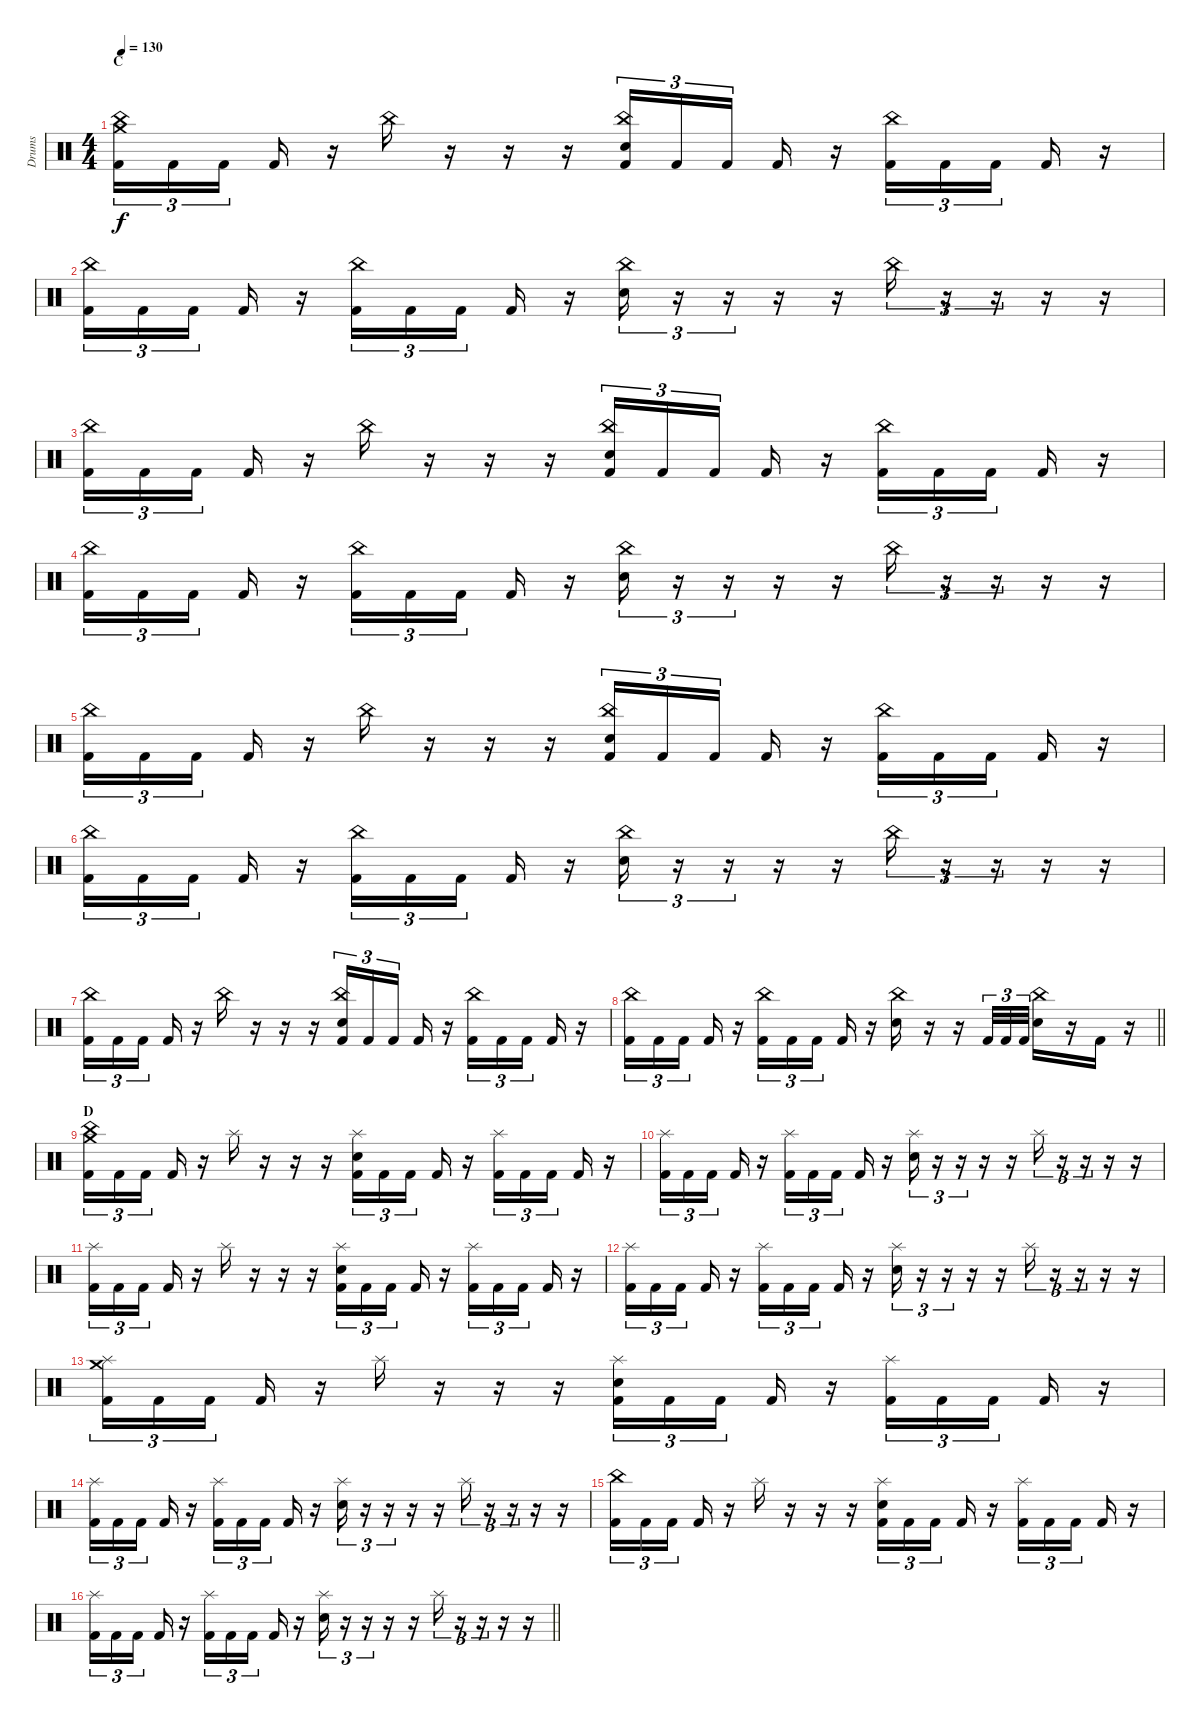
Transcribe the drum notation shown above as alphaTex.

\track ("Drums" "Drums") {instrument percussion}
\staff {score}
\articulation defaults
\ts (4 4)
\section ("" "C")
\tempo 130
\clef neutral
\ks c
("Kick (hit) 2" "China (hit)" "Crash medium (hit)").16{tu (3 2) dy f} "Kick (hit) 2".16{tu (3 2)} "Kick (hit) 2".16{tu (3 2) beam splitsecondary} "Kick (hit) 2".16 r.16 "China (hit)".16 r.16 r.16 r.16 ("Kick (hit) 2" "Snare (hit) 2" "China (hit)").16{tu (3 2)} "Kick (hit) 2".16{tu (3 2)} "Kick (hit) 2".16{tu (3 2) beam splitsecondary} "Kick (hit) 2".16 r.16 ("Kick (hit) 2" "China (hit)").16{tu (3 2)} "Kick (hit) 2".16{tu (3 2)} "Kick (hit) 2".16{tu (3 2) beam splitsecondary} "Kick (hit) 2".16 r.16 |
("Kick (hit) 2" "China (hit)").16{tu (3 2)} "Kick (hit) 2".16{tu (3 2)} "Kick (hit) 2".16{tu (3 2) beam splitsecondary} "Kick (hit) 2".16 r.16 ("Kick (hit) 2" "China (hit)").16{tu (3 2)} "Kick (hit) 2".16{tu (3 2)} "Kick (hit) 2".16{tu (3 2) beam splitsecondary} "Kick (hit) 2".16 r.16 ("Snare (hit) 2" "China (hit)").16{tu (3 2)} r.16{tu (3 2)} r.16{tu (3 2)} r.16 r.16 "China (hit)".16{tu (3 2)} r.16{tu (3 2)} r.16{tu (3 2)} r.16 r.16 |
("Kick (hit) 2" "China (hit)").16{tu (3 2)} "Kick (hit) 2".16{tu (3 2)} "Kick (hit) 2".16{tu (3 2) beam splitsecondary} "Kick (hit) 2".16 r.16 "China (hit)".16 r.16 r.16 r.16 ("Kick (hit) 2" "Snare (hit) 2" "China (hit)").16{tu (3 2)} "Kick (hit) 2".16{tu (3 2)} "Kick (hit) 2".16{tu (3 2) beam splitsecondary} "Kick (hit) 2".16 r.16 ("Kick (hit) 2" "China (hit)").16{tu (3 2)} "Kick (hit) 2".16{tu (3 2)} "Kick (hit) 2".16{tu (3 2) beam splitsecondary} "Kick (hit) 2".16 r.16 |
("Kick (hit) 2" "China (hit)").16{tu (3 2)} "Kick (hit) 2".16{tu (3 2)} "Kick (hit) 2".16{tu (3 2) beam splitsecondary} "Kick (hit) 2".16 r.16 ("Kick (hit) 2" "China (hit)").16{tu (3 2)} "Kick (hit) 2".16{tu (3 2)} "Kick (hit) 2".16{tu (3 2) beam splitsecondary} "Kick (hit) 2".16 r.16 ("Snare (hit) 2" "China (hit)").16{tu (3 2)} r.16{tu (3 2)} r.16{tu (3 2)} r.16 r.16 "China (hit)".16{tu (3 2)} r.16{tu (3 2)} r.16{tu (3 2)} r.16 r.16 |
("Kick (hit) 2" "China (hit)").16{tu (3 2)} "Kick (hit) 2".16{tu (3 2)} "Kick (hit) 2".16{tu (3 2) beam splitsecondary} "Kick (hit) 2".16 r.16 "China (hit)".16 r.16 r.16 r.16 ("Kick (hit) 2" "Snare (hit) 2" "China (hit)").16{tu (3 2)} "Kick (hit) 2".16{tu (3 2)} "Kick (hit) 2".16{tu (3 2) beam splitsecondary} "Kick (hit) 2".16 r.16 ("Kick (hit) 2" "China (hit)").16{tu (3 2)} "Kick (hit) 2".16{tu (3 2)} "Kick (hit) 2".16{tu (3 2) beam splitsecondary} "Kick (hit) 2".16 r.16 |
("Kick (hit) 2" "China (hit)").16{tu (3 2)} "Kick (hit) 2".16{tu (3 2)} "Kick (hit) 2".16{tu (3 2) beam splitsecondary} "Kick (hit) 2".16 r.16 ("Kick (hit) 2" "China (hit)").16{tu (3 2)} "Kick (hit) 2".16{tu (3 2)} "Kick (hit) 2".16{tu (3 2) beam splitsecondary} "Kick (hit) 2".16 r.16 ("Snare (hit) 2" "China (hit)").16{tu (3 2)} r.16{tu (3 2)} r.16{tu (3 2)} r.16 r.16 "China (hit)".16{tu (3 2)} r.16{tu (3 2)} r.16{tu (3 2)} r.16 r.16 |
("Kick (hit) 2" "China (hit)").16{tu (3 2)} "Kick (hit) 2".16{tu (3 2)} "Kick (hit) 2".16{tu (3 2) beam splitsecondary} "Kick (hit) 2".16 r.16 "China (hit)".16 r.16 r.16 r.16 ("Kick (hit) 2" "Snare (hit) 2" "China (hit)").16{tu (3 2)} "Kick (hit) 2".16{tu (3 2)} "Kick (hit) 2".16{tu (3 2) beam splitsecondary} "Kick (hit) 2".16 r.16 ("Kick (hit) 2" "China (hit)").16{tu (3 2)} "Kick (hit) 2".16{tu (3 2)} "Kick (hit) 2".16{tu (3 2) beam splitsecondary} "Kick (hit) 2".16 r.16 |
\barLineRight lightlight
("Kick (hit) 2" "China (hit)").16{tu (3 2)} "Kick (hit) 2".16{tu (3 2)} "Kick (hit) 2".16{tu (3 2) beam splitsecondary} "Kick (hit) 2".16 r.16 ("Kick (hit) 2" "China (hit)").16{tu (3 2)} "Kick (hit) 2".16{tu (3 2)} "Kick (hit) 2".16{tu (3 2) beam splitsecondary} "Kick (hit) 2".16 r.16 ("Snare (hit) 2" "China (hit)").16 r.16 r.16 "Kick (hit) 2".32{tu (3 2)} "Kick (hit) 2".32{tu (3 2)} "Kick (hit) 2".32{tu (3 2)} ("Snare (hit) 2" "China (hit)").16 r.16 "Kick (hit) 2".16 r.16 |
\section ("" "D")
("Kick (hit) 2" "China (hit)" "Crash medium (hit)").16{tu (3 2)} "Kick (hit) 2".16{tu (3 2)} "Kick (hit) 2".16{tu (3 2) beam splitsecondary} "Kick (hit) 2".16 r.16 "Splash (hit)".16 r.16 r.16 r.16 ("Kick (hit) 2" "Snare (hit) 2" "Splash (hit)").16{tu (3 2)} "Kick (hit) 2".16{tu (3 2)} "Kick (hit) 2".16{tu (3 2) beam splitsecondary} "Kick (hit) 2".16 r.16 ("Kick (hit) 2" "Splash (hit)").16{tu (3 2)} "Kick (hit) 2".16{tu (3 2)} "Kick (hit) 2".16{tu (3 2) beam splitsecondary} "Kick (hit) 2".16 r.16 |
("Kick (hit) 2" "Splash (hit)").16{tu (3 2)} "Kick (hit) 2".16{tu (3 2)} "Kick (hit) 2".16{tu (3 2) beam splitsecondary} "Kick (hit) 2".16 r.16 ("Kick (hit) 2" "Splash (hit)").16{tu (3 2)} "Kick (hit) 2".16{tu (3 2)} "Kick (hit) 2".16{tu (3 2) beam splitsecondary} "Kick (hit) 2".16 r.16 ("Snare (hit) 2" "Splash (hit)").16{tu (3 2)} r.16{tu (3 2)} r.16{tu (3 2)} r.16 r.16 "Splash (hit)".16{tu (3 2)} r.16{tu (3 2)} r.16{tu (3 2)} r.16 r.16 |
("Kick (hit) 2" "Splash (hit)").16{tu (3 2)} "Kick (hit) 2".16{tu (3 2)} "Kick (hit) 2".16{tu (3 2) beam splitsecondary} "Kick (hit) 2".16 r.16 "Splash (hit)".16 r.16 r.16 r.16 ("Kick (hit) 2" "Snare (hit) 2" "Splash (hit)").16{tu (3 2)} "Kick (hit) 2".16{tu (3 2)} "Kick (hit) 2".16{tu (3 2) beam splitsecondary} "Kick (hit) 2".16 r.16 ("Kick (hit) 2" "Splash (hit)").16{tu (3 2)} "Kick (hit) 2".16{tu (3 2)} "Kick (hit) 2".16{tu (3 2) beam splitsecondary} "Kick (hit) 2".16 r.16 |
("Kick (hit) 2" "Splash (hit)").16{tu (3 2)} "Kick (hit) 2".16{tu (3 2)} "Kick (hit) 2".16{tu (3 2) beam splitsecondary} "Kick (hit) 2".16 r.16 ("Kick (hit) 2" "Splash (hit)").16{tu (3 2)} "Kick (hit) 2".16{tu (3 2)} "Kick (hit) 2".16{tu (3 2) beam splitsecondary} "Kick (hit) 2".16 r.16 ("Snare (hit) 2" "Splash (hit)").16{tu (3 2)} r.16{tu (3 2)} r.16{tu (3 2)} r.16 r.16 "Splash (hit)".16{tu (3 2)} r.16{tu (3 2)} r.16{tu (3 2)} r.16 r.16 |
("Kick (hit) 2" "Splash (hit)" "Crash medium (hit)").16{tu (3 2)} "Kick (hit) 2".16{tu (3 2)} "Kick (hit) 2".16{tu (3 2) beam splitsecondary} "Kick (hit) 2".16 r.16 "Splash (hit)".16 r.16 r.16 r.16 ("Kick (hit) 2" "Snare (hit) 2" "Splash (hit)").16{tu (3 2)} "Kick (hit) 2".16{tu (3 2)} "Kick (hit) 2".16{tu (3 2) beam splitsecondary} "Kick (hit) 2".16 r.16 ("Kick (hit) 2" "Splash (hit)").16{tu (3 2)} "Kick (hit) 2".16{tu (3 2)} "Kick (hit) 2".16{tu (3 2) beam splitsecondary} "Kick (hit) 2".16 r.16 |
("Kick (hit) 2" "Splash (hit)").16{tu (3 2)} "Kick (hit) 2".16{tu (3 2)} "Kick (hit) 2".16{tu (3 2) beam splitsecondary} "Kick (hit) 2".16 r.16 ("Kick (hit) 2" "Splash (hit)").16{tu (3 2)} "Kick (hit) 2".16{tu (3 2)} "Kick (hit) 2".16{tu (3 2) beam splitsecondary} "Kick (hit) 2".16 r.16 ("Snare (hit) 2" "Splash (hit)").16{tu (3 2)} r.16{tu (3 2)} r.16{tu (3 2)} r.16 r.16 "Splash (hit)".16{tu (3 2)} r.16{tu (3 2)} r.16{tu (3 2)} r.16 r.16 |
("Kick (hit) 2" "China (hit)").16{tu (3 2)} "Kick (hit) 2".16{tu (3 2)} "Kick (hit) 2".16{tu (3 2) beam splitsecondary} "Kick (hit) 2".16 r.16 "Splash (hit)".16 r.16 r.16 r.16 ("Kick (hit) 2" "Snare (hit) 2" "Splash (hit)").16{tu (3 2)} "Kick (hit) 2".16{tu (3 2)} "Kick (hit) 2".16{tu (3 2) beam splitsecondary} "Kick (hit) 2".16 r.16 ("Kick (hit) 2" "Splash (hit)").16{tu (3 2)} "Kick (hit) 2".16{tu (3 2)} "Kick (hit) 2".16{tu (3 2) beam splitsecondary} "Kick (hit) 2".16 r.16 |
\barLineRight lightlight
("Kick (hit) 2" "Splash (hit)").16{tu (3 2)} "Kick (hit) 2".16{tu (3 2)} "Kick (hit) 2".16{tu (3 2) beam splitsecondary} "Kick (hit) 2".16 r.16 ("Kick (hit) 2" "Splash (hit)").16{tu (3 2)} "Kick (hit) 2".16{tu (3 2)} "Kick (hit) 2".16{tu (3 2) beam splitsecondary} "Kick (hit) 2".16 r.16 ("Snare (hit) 2" "Splash (hit)").16{tu (3 2)} r.16{tu (3 2)} r.16{tu (3 2)} r.16 r.16 "Splash (hit)".16{tu (3 2)} r.16{tu (3 2)} r.16{tu (3 2)} r.16 r.16
